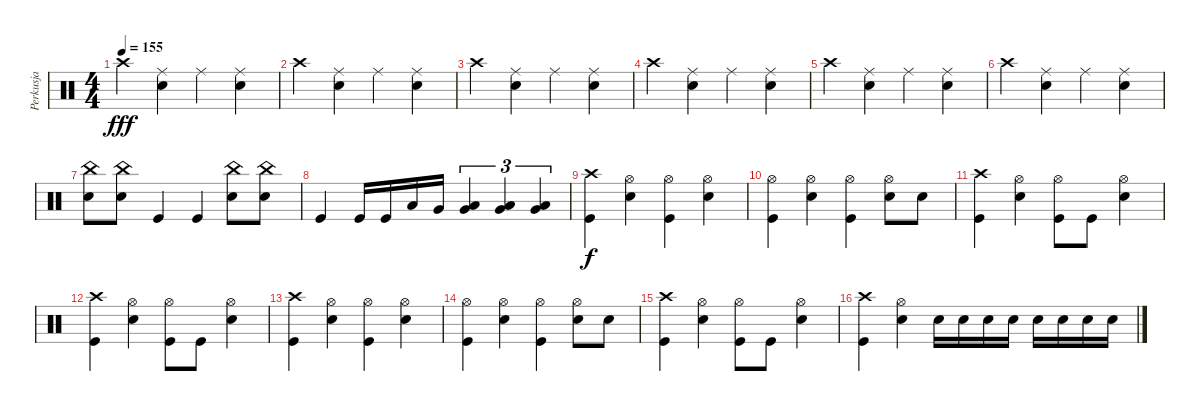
\track ("Perkusja" "Perkusja") {instrument percussion}
\staff {score}
\articulation defaults
\ts (4 4)
\tempo 155
\clef neutral
\ks c "Crash high (hit)".4{dy fff}
("Ride (middle)" "Snare (hit) 2").4 "Ride (middle)".4 ("Ride (middle)" "Snare (hit) 2").4 |
"Crash high (hit)".4 ("Ride (middle)" "Snare (hit) 2").4 "Ride (middle)".4 ("Ride (middle)" "Snare (hit) 2").4 |
"Crash high (hit)".4 ("Ride (middle)" "Snare (hit) 2").4 "Ride (middle)".4 ("Ride (middle)" "Snare (hit) 2").4 |
"Crash high (hit)".4 ("Ride (middle)" "Snare (hit) 2").4 "Ride (middle)".4 ("Ride (middle)" "Snare (hit) 2").4 |
"Crash high (hit)".4 ("Ride (middle)" "Snare (hit) 2").4 "Ride (middle)".4 ("Ride (middle)" "Snare (hit) 2").4 |
"Crash high (hit)".4 ("Ride (middle)" "Snare (hit) 2").4 "Ride (middle)".4 ("Ride (middle)" "Snare (hit) 2").4 |
("China (hit)" "Snare (hit) 2").8 ("China (hit)" "Snare (hit) 2").8 "Kick (hit)".4 "Kick (hit)".4 ("China (hit)" "Snare (hit) 2").8 ("Snare (hit) 2" "China (hit)").8 |
"Kick (hit)".4 "Kick (hit)".16 "Kick (hit)".16 "Low Floor Tom (hit)".16 "Very Low Tom (hit)".16 ("Low Floor Tom (hit)" "Very Low Tom (hit)").4{tu (3 2)} ("Low Floor Tom (hit)" "Very Low Tom (hit)").4{tu (3 2)} ("Low Floor Tom (hit)" "Very Low Tom (hit)").4{tu (3 2)} |
("Crash high (hit)" "Kick (hit)").4{dy f} ("Hi-Hat (open)" "Snare (hit) 2").4 ("Kick (hit)" "Hi-Hat (open)").4 ("Snare (hit) 2" "Hi-Hat (open)").4 |
("Kick (hit)" "Hi-Hat (open)").4 ("Snare (hit) 2" "Hi-Hat (open)").4 ("Kick (hit)" "Hi-Hat (open)").4 ("Snare (hit) 2" "Hi-Hat (open)").8 "Snare (hit) 2".8 |
("Crash high (hit)" "Kick (hit)").4 ("Snare (hit) 2" "Hi-Hat (open)").4 ("Kick (hit)" "Hi-Hat (open)").8 "Kick (hit)".8 ("Hi-Hat (open)" "Snare (hit) 2").4 |
("Crash high (hit)" "Kick (hit)").4 ("Hi-Hat (open)" "Snare (hit) 2").4 ("Kick (hit)" "Hi-Hat (open)").8 "Kick (hit)".8 ("Hi-Hat (open)" "Snare (hit) 2").4 |
("Crash high (hit)" "Kick (hit)").4 ("Hi-Hat (open)" "Snare (hit) 2").4 ("Kick (hit)" "Hi-Hat (open)").4 ("Snare (hit) 2" "Hi-Hat (open)").4 |
("Kick (hit)" "Hi-Hat (open)").4 ("Snare (hit) 2" "Hi-Hat (open)").4 ("Kick (hit)" "Hi-Hat (open)").4 ("Snare (hit) 2" "Hi-Hat (open)").8 "Snare (hit) 2".8 |
("Crash high (hit)" "Kick (hit)").4 ("Snare (hit) 2" "Hi-Hat (open)").4 ("Kick (hit)" "Hi-Hat (open)").8 "Kick (hit)".8 ("Hi-Hat (open)" "Snare (hit) 2").4 |
("Crash high (hit)" "Kick (hit)").4 ("Hi-Hat (open)" "Snare (hit) 2").4 "Snare (hit) 2".16 "Snare (hit) 2".16 "Snare (hit) 2".16 "Snare (hit) 2".16 "Snare (hit) 2".16 "Snare (hit) 2".16 "Snare (hit) 2".16 "Snare (hit) 2".16
